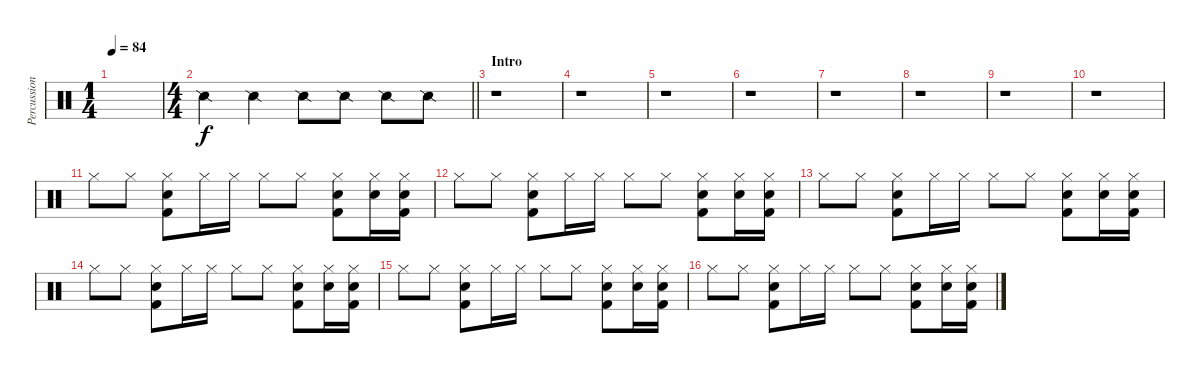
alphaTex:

\track ("Percussion" "Percussion") {instrument percussion}
\staff {score}
\articulation defaults
\ts (1 4)
\tempo 84
\clef neutral
\ks c
|
\ts (4 4)
\barLineRight lightlight "Snare (side stick) 2".4 "Snare (side stick) 2".4 "Snare (side stick) 2".8 "Snare (side stick) 2".8 "Snare (side stick) 2".8 "Snare (side stick) 2".8
|
\section ("" "Intro")
r.1 |
r.1 |
r.1 |
r.1 |
r.1 |
r.1 |
r.1 |
r.1 |
"Hi-Hat (closed)".8 "Hi-Hat (closed)".8 ("Hi-Hat (closed)" "Snare (hit) 2" "Kick (hit) 2").8 "Hi-Hat (closed)".16 "Hi-Hat (closed)".16 "Hi-Hat (closed)".8 "Hi-Hat (closed)".8 ("Hi-Hat (closed)" "Snare (hit) 2" "Kick (hit) 2").8 ("Hi-Hat (closed)" "Snare (hit) 2").16 ("Hi-Hat (closed)" "Snare (hit) 2" "Kick (hit) 2").16 |
"Hi-Hat (closed)".8 "Hi-Hat (closed)".8 ("Hi-Hat (closed)" "Snare (hit) 2" "Kick (hit) 2").8 "Hi-Hat (closed)".16 "Hi-Hat (closed)".16 "Hi-Hat (closed)".8 "Hi-Hat (closed)".8 ("Hi-Hat (closed)" "Snare (hit) 2" "Kick (hit) 2").8 ("Hi-Hat (closed)" "Snare (hit) 2").16 ("Hi-Hat (closed)" "Snare (hit) 2" "Kick (hit) 2").16 |
"Hi-Hat (closed)".8 "Hi-Hat (closed)".8 ("Hi-Hat (closed)" "Snare (hit) 2" "Kick (hit) 2").8 "Hi-Hat (closed)".16 "Hi-Hat (closed)".16 "Hi-Hat (closed)".8 "Hi-Hat (closed)".8 ("Hi-Hat (closed)" "Snare (hit) 2" "Kick (hit) 2").8 ("Hi-Hat (closed)" "Snare (hit) 2").16 ("Hi-Hat (closed)" "Snare (hit) 2" "Kick (hit) 2").16 |
"Hi-Hat (closed)".8 "Hi-Hat (closed)".8 ("Hi-Hat (closed)" "Snare (hit) 2" "Kick (hit) 2").8 "Hi-Hat (closed)".16 "Hi-Hat (closed)".16 "Hi-Hat (closed)".8 "Hi-Hat (closed)".8 ("Hi-Hat (closed)" "Snare (hit) 2" "Kick (hit) 2").8 ("Hi-Hat (closed)" "Snare (hit) 2").16 ("Hi-Hat (closed)" "Snare (hit) 2" "Kick (hit) 2").16 |
"Hi-Hat (closed)".8 "Hi-Hat (closed)".8 ("Hi-Hat (closed)" "Snare (hit) 2" "Kick (hit) 2").8 "Hi-Hat (closed)".16 "Hi-Hat (closed)".16 "Hi-Hat (closed)".8 "Hi-Hat (closed)".8 ("Hi-Hat (closed)" "Snare (hit) 2" "Kick (hit) 2").8 ("Hi-Hat (closed)" "Snare (hit) 2").16 ("Hi-Hat (closed)" "Snare (hit) 2" "Kick (hit) 2").16 |
"Hi-Hat (closed)".8 "Hi-Hat (closed)".8 ("Hi-Hat (closed)" "Snare (hit) 2" "Kick (hit) 2").8 "Hi-Hat (closed)".16 "Hi-Hat (closed)".16 "Hi-Hat (closed)".8 "Hi-Hat (closed)".8 ("Hi-Hat (closed)" "Snare (hit) 2" "Kick (hit) 2").8 ("Hi-Hat (closed)" "Snare (hit) 2").16 ("Hi-Hat (closed)" "Snare (hit) 2" "Kick (hit) 2").16
